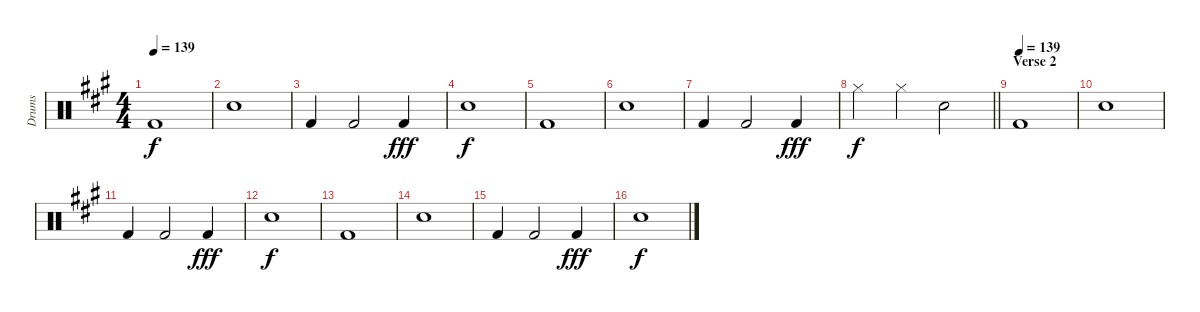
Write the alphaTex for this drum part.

\track ("Drums" "Drums") {instrument percussion}
\staff {score}
\articulation defaults
\ts (4 4)
\tempo 139
\clef neutral
\ks a "Kick (hit) 2".1{dy f}
|
"Electric Snare (hit)".1 |
"Kick (hit) 2".4 "Kick (hit) 2".2 "Kick (hit) 2".4{dy fff} |
"Electric Snare (hit)".1{dy f} |
"Kick (hit) 2".1 |
"Electric Snare (hit)".1 |
"Kick (hit) 2".4 "Kick (hit) 2".2 "Kick (hit) 2".4{dy fff} |
\barLineRight lightlight "Hi-Hat (closed)".4{dy f} "Hi-Hat (closed)".4 "Electric Snare (hit)".2
|
\section ("" "Verse 2")
\tempo (139)
"Kick (hit) 2".1 |
"Electric Snare (hit)".1 |
"Kick (hit) 2".4 "Kick (hit) 2".2 "Kick (hit) 2".4{dy fff} |
"Electric Snare (hit)".1{dy f} |
"Kick (hit) 2".1 |
"Electric Snare (hit)".1 |
"Kick (hit) 2".4 "Kick (hit) 2".2 "Kick (hit) 2".4{dy fff} |
"Electric Snare (hit)".1{dy f}
